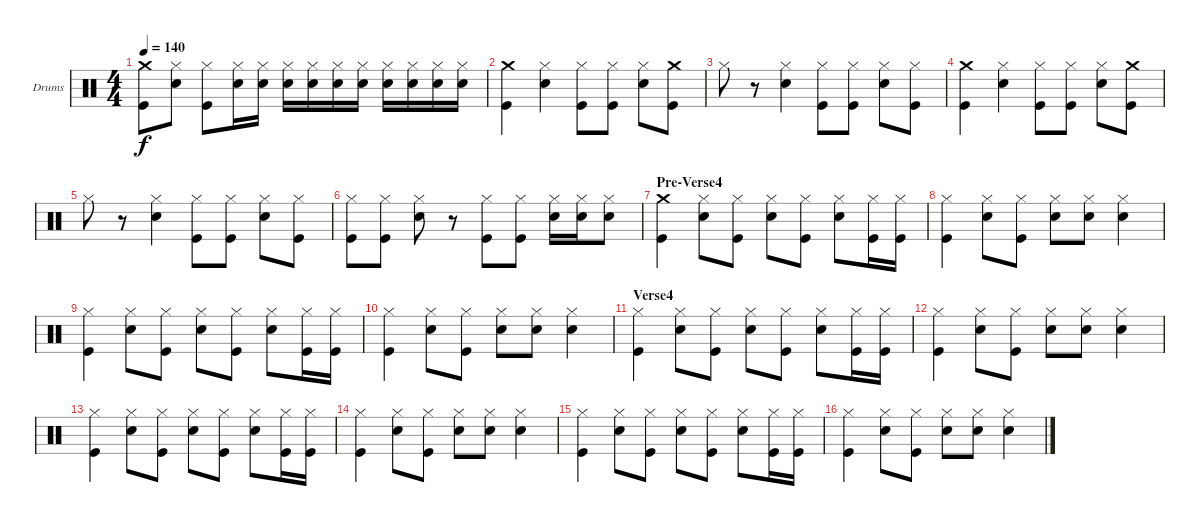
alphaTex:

\defaultSystemsLayout 4
\bracketExtendMode groupsimilarinstruments
\firstSystemTrackNameOrientation horizontal
\otherSystemsTrackNameOrientation horizontal
\track ("Jerinx" "Drums") {instrument percussion}
\staff {score}
\articulation defaults
\ts (4 4)
\tempo 140
\clef neutral
\scale
0.333333
\ks c
("Crash medium (hit)" "Kick (hit)").8{dy f} ("Hi-Hat (closed)" "Snare (hit) 2").8 ("Hi-Hat (closed)" "Kick (hit)").8 ("Hi-Hat (closed)" "Snare (hit) 2").16 ("Hi-Hat (closed)" "Snare (hit) 2").16 ("Hi-Hat (closed)" "Snare (hit) 2").16 ("Hi-Hat (closed)" "Snare (hit) 2").16 ("Hi-Hat (closed)" "Snare (hit) 2").16 ("Hi-Hat (closed)" "Snare (hit) 2").16 ("Hi-Hat (closed)" "Snare (hit) 2").16 ("Hi-Hat (closed)" "Snare (hit) 2").16 ("Hi-Hat (closed)" "Snare (hit) 2").16 ("Hi-Hat (closed)" "Snare (hit) 2").16 |
\scale
0.333333 ("Crash medium (hit)" "Kick (hit)").4 ("Hi-Hat (closed)" "Snare (hit) 2").4 ("Hi-Hat (closed)" "Kick (hit)").8 ("Hi-Hat (closed)" "Kick (hit)").8 ("Hi-Hat (closed)" "Snare (hit) 2").8 ("Crash medium (hit)" "Kick (hit)").8 |
\scale
0.333333 "Hi-Hat (closed)".8 r.8 ("Hi-Hat (closed)" "Snare (hit) 2").4 ("Hi-Hat (closed)" "Kick (hit)").8 ("Hi-Hat (closed)" "Kick (hit)").8 ("Hi-Hat (closed)" "Snare (hit) 2").8 ("Hi-Hat (closed)" "Kick (hit)").8 |
\scale
0.333333 ("Crash medium (hit)" "Kick (hit)").4 ("Hi-Hat (closed)" "Snare (hit) 2").4 ("Hi-Hat (closed)" "Kick (hit)").8 ("Hi-Hat (closed)" "Kick (hit)").8 ("Hi-Hat (closed)" "Snare (hit) 2").8 ("Crash medium (hit)" "Kick (hit)").8 |
\scale
0.333333 "Hi-Hat (closed)".8 r.8 ("Hi-Hat (closed)" "Snare (hit) 2").4 ("Hi-Hat (closed)" "Kick (hit)").8 ("Hi-Hat (closed)" "Kick (hit)").8 ("Hi-Hat (closed)" "Snare (hit) 2").8 ("Hi-Hat (closed)" "Kick (hit)").8 |
\scale
0.333333 ("Hi-Hat (closed)" "Kick (hit)").8 ("Hi-Hat (closed)" "Kick (hit)").8 ("Hi-Hat (closed)" "Snare (hit) 2").8 r.8 ("Hi-Hat (closed)" "Kick (hit)").8 ("Hi-Hat (closed)" "Kick (hit)").8 ("Hi-Hat (closed)" "Snare (hit) 2").16 ("Hi-Hat (closed)" "Snare (hit) 2").16 ("Hi-Hat (closed)" "Snare (hit) 2").8 |
\section ("" "Pre-Verse4")
\scale
0.333333 ("Crash medium (hit)" "Kick (hit)").4 ("Hi-Hat (closed)" "Snare (hit) 2").8 ("Hi-Hat (closed)" "Kick (hit)").8 ("Hi-Hat (closed)" "Snare (hit) 2").8 ("Hi-Hat (closed)" "Kick (hit)").8 ("Hi-Hat (closed)" "Snare (hit) 2").8 ("Hi-Hat (closed)" "Kick (hit)").16 ("Hi-Hat (closed)" "Kick (hit)").16 |
\scale
0.333333 ("Hi-Hat (closed)" "Kick (hit)").4 ("Hi-Hat (closed)" "Snare (hit) 2").8 ("Hi-Hat (closed)" "Kick (hit)").8 ("Hi-Hat (closed)" "Snare (hit) 2").8 ("Hi-Hat (closed)" "Snare (hit) 2").8 ("Hi-Hat (closed)" "Snare (hit) 2").4 |
\scale
0.333333 ("Hi-Hat (closed)" "Kick (hit)").4 ("Hi-Hat (closed)" "Snare (hit) 2").8 ("Hi-Hat (closed)" "Kick (hit)").8 ("Hi-Hat (closed)" "Snare (hit) 2").8 ("Hi-Hat (closed)" "Kick (hit)").8 ("Hi-Hat (closed)" "Snare (hit) 2").8 ("Hi-Hat (closed)" "Kick (hit)").16 ("Hi-Hat (closed)" "Kick (hit)").16 |
\scale
0.333333 ("Hi-Hat (closed)" "Kick (hit)").4 ("Hi-Hat (closed)" "Snare (hit) 2").8 ("Hi-Hat (closed)" "Kick (hit)").8 ("Hi-Hat (closed)" "Snare (hit) 2").8 ("Hi-Hat (closed)" "Snare (hit) 2").8 ("Hi-Hat (closed)" "Snare (hit) 2").4 |
\section ("" "Verse4")
\scale
0.333333 ("Hi-Hat (closed)" "Kick (hit)").4 ("Hi-Hat (closed)" "Snare (hit) 2").8 ("Hi-Hat (closed)" "Kick (hit)").8 ("Hi-Hat (closed)" "Snare (hit) 2").8 ("Hi-Hat (closed)" "Kick (hit)").8 ("Hi-Hat (closed)" "Snare (hit) 2").8 ("Hi-Hat (closed)" "Kick (hit)").16 ("Hi-Hat (closed)" "Kick (hit)").16 |
\scale
0.333333 ("Hi-Hat (closed)" "Kick (hit)").4 ("Hi-Hat (closed)" "Snare (hit) 2").8 ("Hi-Hat (closed)" "Kick (hit)").8 ("Hi-Hat (closed)" "Snare (hit) 2").8 ("Hi-Hat (closed)" "Snare (hit) 2").8 ("Hi-Hat (closed)" "Snare (hit) 2").4 |
\scale
0.333333 ("Hi-Hat (closed)" "Kick (hit)").4 ("Hi-Hat (closed)" "Snare (hit) 2").8 ("Hi-Hat (closed)" "Kick (hit)").8 ("Hi-Hat (closed)" "Snare (hit) 2").8 ("Hi-Hat (closed)" "Kick (hit)").8 ("Hi-Hat (closed)" "Snare (hit) 2").8 ("Hi-Hat (closed)" "Kick (hit)").16 ("Hi-Hat (closed)" "Kick (hit)").16 |
\scale
0.333333 ("Hi-Hat (closed)" "Kick (hit)").4 ("Hi-Hat (closed)" "Snare (hit) 2").8 ("Hi-Hat (closed)" "Kick (hit)").8 ("Hi-Hat (closed)" "Snare (hit) 2").8 ("Hi-Hat (closed)" "Snare (hit) 2").8 ("Hi-Hat (closed)" "Snare (hit) 2").4 |
\scale
0.333333 ("Hi-Hat (closed)" "Kick (hit)").4 ("Hi-Hat (closed)" "Snare (hit) 2").8 ("Hi-Hat (closed)" "Kick (hit)").8 ("Hi-Hat (closed)" "Snare (hit) 2").8 ("Hi-Hat (closed)" "Kick (hit)").8 ("Hi-Hat (closed)" "Snare (hit) 2").8 ("Hi-Hat (closed)" "Kick (hit)").16 ("Hi-Hat (closed)" "Kick (hit)").16 |
\scale
0.333333 ("Hi-Hat (closed)" "Kick (hit)").4 ("Hi-Hat (closed)" "Snare (hit) 2").8 ("Hi-Hat (closed)" "Kick (hit)").8 ("Hi-Hat (closed)" "Snare (hit) 2").8 ("Hi-Hat (closed)" "Snare (hit) 2").8 ("Hi-Hat (closed)" "Snare (hit) 2").4
